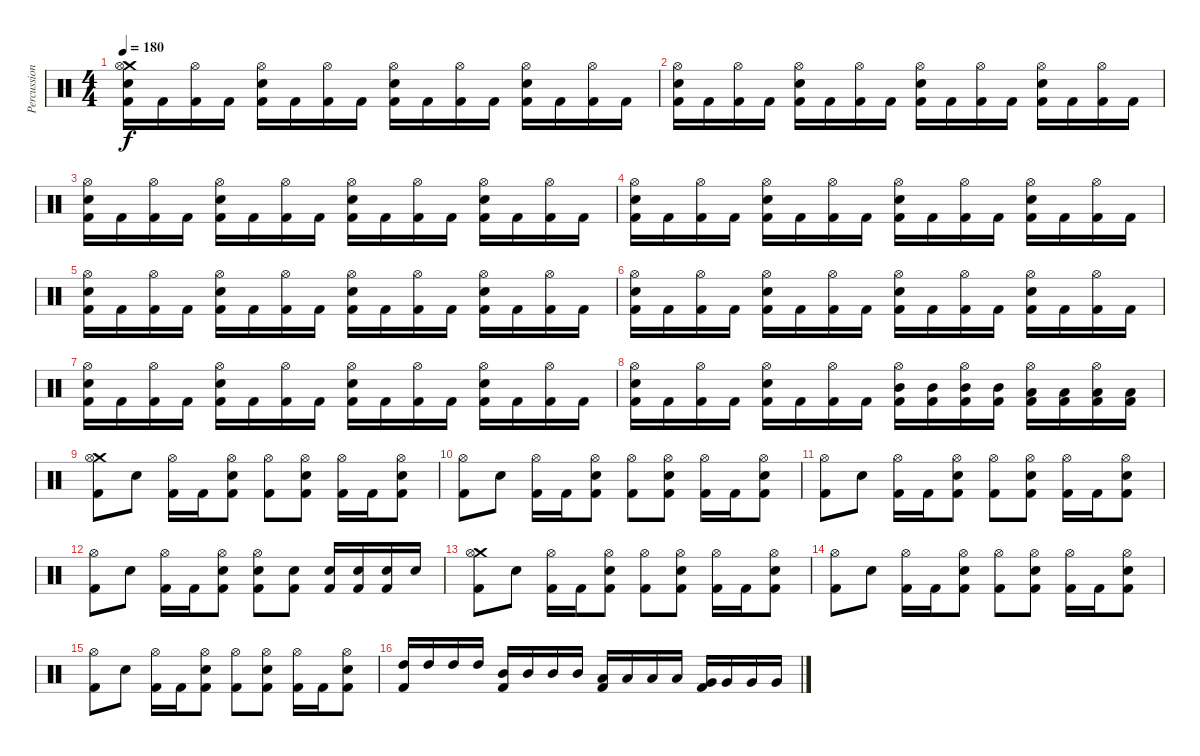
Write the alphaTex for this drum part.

\track ("Percussion" "Percussion") {instrument percussion}
\staff {score}
\articulation defaults
\ts (4 4)
\tempo 180
\clef neutral
\ks c
("Crash medium (hit)" "Hi-Hat (open)" "Electric Snare (hit)" "Kick (hit) 2").16{dy f} "Kick (hit) 2".16 ("Hi-Hat (open)" "Kick (hit) 2").16 "Kick (hit) 2".16 ("Hi-Hat (open)" "Electric Snare (hit)" "Kick (hit) 2").16 "Kick (hit) 2".16 ("Hi-Hat (open)" "Kick (hit) 2").16 "Kick (hit) 2".16 ("Hi-Hat (open)" "Electric Snare (hit)" "Kick (hit) 2").16 "Kick (hit) 2".16 ("Hi-Hat (open)" "Kick (hit) 2").16 "Kick (hit) 2".16 ("Hi-Hat (open)" "Electric Snare (hit)" "Kick (hit) 2").16 "Kick (hit) 2".16 ("Hi-Hat (open)" "Kick (hit) 2").16 "Kick (hit) 2".16 |
("Hi-Hat (open)" "Electric Snare (hit)" "Kick (hit) 2").16 "Kick (hit) 2".16 ("Hi-Hat (open)" "Kick (hit) 2").16 "Kick (hit) 2".16 ("Hi-Hat (open)" "Electric Snare (hit)" "Kick (hit) 2").16 "Kick (hit) 2".16 ("Hi-Hat (open)" "Kick (hit) 2").16 "Kick (hit) 2".16 ("Hi-Hat (open)" "Electric Snare (hit)" "Kick (hit) 2").16 "Kick (hit) 2".16 ("Hi-Hat (open)" "Kick (hit) 2").16 "Kick (hit) 2".16 ("Hi-Hat (open)" "Electric Snare (hit)" "Kick (hit) 2").16 "Kick (hit) 2".16 ("Hi-Hat (open)" "Kick (hit) 2").16 "Kick (hit) 2".16 |
("Hi-Hat (open)" "Electric Snare (hit)" "Kick (hit) 2").16 "Kick (hit) 2".16 ("Hi-Hat (open)" "Kick (hit) 2").16 "Kick (hit) 2".16 ("Hi-Hat (open)" "Electric Snare (hit)" "Kick (hit) 2").16 "Kick (hit) 2".16 ("Hi-Hat (open)" "Kick (hit) 2").16 "Kick (hit) 2".16 ("Hi-Hat (open)" "Electric Snare (hit)" "Kick (hit) 2").16 "Kick (hit) 2".16 ("Hi-Hat (open)" "Kick (hit) 2").16 "Kick (hit) 2".16 ("Hi-Hat (open)" "Electric Snare (hit)" "Kick (hit) 2").16 "Kick (hit) 2".16 ("Hi-Hat (open)" "Kick (hit) 2").16 "Kick (hit) 2".16 |
("Hi-Hat (open)" "Electric Snare (hit)" "Kick (hit) 2").16 "Kick (hit) 2".16 ("Hi-Hat (open)" "Kick (hit) 2").16 "Kick (hit) 2".16 ("Hi-Hat (open)" "Electric Snare (hit)" "Kick (hit) 2").16 "Kick (hit) 2".16 ("Hi-Hat (open)" "Kick (hit) 2").16 "Kick (hit) 2".16 ("Hi-Hat (open)" "Electric Snare (hit)" "Kick (hit) 2").16 "Kick (hit) 2".16 ("Hi-Hat (open)" "Kick (hit) 2").16 "Kick (hit) 2".16 ("Hi-Hat (open)" "Electric Snare (hit)" "Kick (hit) 2").16 "Kick (hit) 2".16 ("Hi-Hat (open)" "Kick (hit) 2").16 "Kick (hit) 2".16 |
("Hi-Hat (open)" "Electric Snare (hit)" "Kick (hit) 2").16 "Kick (hit) 2".16 ("Hi-Hat (open)" "Kick (hit) 2").16 "Kick (hit) 2".16 ("Hi-Hat (open)" "Electric Snare (hit)" "Kick (hit) 2").16 "Kick (hit) 2".16 ("Hi-Hat (open)" "Kick (hit) 2").16 "Kick (hit) 2".16 ("Hi-Hat (open)" "Electric Snare (hit)" "Kick (hit) 2").16 "Kick (hit) 2".16 ("Hi-Hat (open)" "Kick (hit) 2").16 "Kick (hit) 2".16 ("Hi-Hat (open)" "Electric Snare (hit)" "Kick (hit) 2").16 "Kick (hit) 2".16 ("Hi-Hat (open)" "Kick (hit) 2").16 "Kick (hit) 2".16 |
("Hi-Hat (open)" "Electric Snare (hit)" "Kick (hit) 2").16 "Kick (hit) 2".16 ("Hi-Hat (open)" "Kick (hit) 2").16 "Kick (hit) 2".16 ("Hi-Hat (open)" "Electric Snare (hit)" "Kick (hit) 2").16 "Kick (hit) 2".16 ("Hi-Hat (open)" "Kick (hit) 2").16 "Kick (hit) 2".16 ("Hi-Hat (open)" "Electric Snare (hit)" "Kick (hit) 2").16 "Kick (hit) 2".16 ("Hi-Hat (open)" "Kick (hit) 2").16 "Kick (hit) 2".16 ("Hi-Hat (open)" "Electric Snare (hit)" "Kick (hit) 2").16 "Kick (hit) 2".16 ("Hi-Hat (open)" "Kick (hit) 2").16 "Kick (hit) 2".16 |
("Hi-Hat (open)" "Electric Snare (hit)" "Kick (hit) 2").16 "Kick (hit) 2".16 ("Hi-Hat (open)" "Kick (hit) 2").16 "Kick (hit) 2".16 ("Hi-Hat (open)" "Electric Snare (hit)" "Kick (hit) 2").16 "Kick (hit) 2".16 ("Hi-Hat (open)" "Kick (hit) 2").16 "Kick (hit) 2".16 ("Hi-Hat (open)" "Electric Snare (hit)" "Kick (hit) 2").16 "Kick (hit) 2".16 ("Hi-Hat (open)" "Kick (hit) 2").16 "Kick (hit) 2".16 ("Hi-Hat (open)" "Electric Snare (hit)" "Kick (hit) 2").16 "Kick (hit) 2".16 ("Hi-Hat (open)" "Kick (hit) 2").16 "Kick (hit) 2".16 |
("Hi-Hat (open)" "Electric Snare (hit)" "Kick (hit) 2").16 "Kick (hit) 2".16 ("Hi-Hat (open)" "Kick (hit) 2").16 "Kick (hit) 2".16 ("Hi-Hat (open)" "Electric Snare (hit)" "Kick (hit) 2").16 "Kick (hit) 2".16 ("Hi-Hat (open)" "Kick (hit) 2").16 "Kick (hit) 2".16 ("Hi-Hat (open)" "Mid Tom (hit)" "Kick (hit) 2").16 ("Mid Tom (hit)" "Kick (hit) 2").16 ("Hi-Hat (open)" "Mid Tom (hit)" "Kick (hit) 2").16 ("Mid Tom (hit)" "Kick (hit) 2").16 ("Hi-Hat (open)" "Low Tom (hit)" "Kick (hit) 2").16 ("Low Tom (hit)" "Kick (hit) 2").16 ("Hi-Hat (open)" "Low Tom (hit)" "Kick (hit) 2").16 ("Low Tom (hit)" "Kick (hit) 2").16 |
("Crash medium (hit)" "Hi-Hat (open)" "Kick (hit) 2").8 "Electric Snare (hit)".8 ("Hi-Hat (open)" "Kick (hit) 2").16 "Kick (hit) 2".16 ("Hi-Hat (open)" "Electric Snare (hit)" "Kick (hit) 2").8 ("Hi-Hat (open)" "Kick (hit) 2").8 ("Hi-Hat (open)" "Electric Snare (hit)" "Kick (hit) 2").8 ("Hi-Hat (open)" "Kick (hit) 2").16 "Kick (hit) 2".16 ("Hi-Hat (open)" "Electric Snare (hit)" "Kick (hit) 2").8 |
("Hi-Hat (open)" "Kick (hit) 2").8 "Electric Snare (hit)".8 ("Hi-Hat (open)" "Kick (hit) 2").16 "Kick (hit) 2".16 ("Hi-Hat (open)" "Electric Snare (hit)" "Kick (hit) 2").8 ("Hi-Hat (open)" "Kick (hit) 2").8 ("Hi-Hat (open)" "Electric Snare (hit)" "Kick (hit) 2").8 ("Hi-Hat (open)" "Kick (hit) 2").16 "Kick (hit) 2".16 ("Hi-Hat (open)" "Electric Snare (hit)" "Kick (hit) 2").8 |
("Hi-Hat (open)" "Kick (hit) 2").8 "Electric Snare (hit)".8 ("Hi-Hat (open)" "Kick (hit) 2").16 "Kick (hit) 2".16 ("Hi-Hat (open)" "Electric Snare (hit)" "Kick (hit) 2").8 ("Hi-Hat (open)" "Kick (hit) 2").8 ("Hi-Hat (open)" "Electric Snare (hit)" "Kick (hit) 2").8 ("Hi-Hat (open)" "Kick (hit) 2").16 "Kick (hit) 2".16 ("Hi-Hat (open)" "Electric Snare (hit)" "Kick (hit) 2").8 |
("Hi-Hat (open)" "Kick (hit) 2").8 "Electric Snare (hit)".8 ("Hi-Hat (open)" "Kick (hit) 2").16 "Kick (hit) 2".16 ("Hi-Hat (open)" "Electric Snare (hit)" "Kick (hit) 2").8 ("Hi-Hat (open)" "Electric Snare (hit)" "Kick (hit) 2").8 ("Electric Snare (hit)" "Kick (hit) 2").8 ("Electric Snare (hit)" "Kick (hit) 2").16 ("Electric Snare (hit)" "Kick (hit) 2").16 ("Electric Snare (hit)" "Kick (hit) 2").16 "Electric Snare (hit)".16 |
("Crash medium (hit)" "Hi-Hat (open)" "Kick (hit) 2").8 "Electric Snare (hit)".8 ("Hi-Hat (open)" "Kick (hit) 2").16 "Kick (hit) 2".16 ("Hi-Hat (open)" "Electric Snare (hit)" "Kick (hit) 2").8 ("Hi-Hat (open)" "Kick (hit) 2").8 ("Hi-Hat (open)" "Electric Snare (hit)" "Kick (hit) 2").8 ("Hi-Hat (open)" "Kick (hit) 2").16 "Kick (hit) 2".16 ("Hi-Hat (open)" "Electric Snare (hit)" "Kick (hit) 2").8 |
("Hi-Hat (open)" "Kick (hit) 2").8 "Electric Snare (hit)".8 ("Hi-Hat (open)" "Kick (hit) 2").16 "Kick (hit) 2".16 ("Hi-Hat (open)" "Electric Snare (hit)" "Kick (hit) 2").8 ("Hi-Hat (open)" "Kick (hit) 2").8 ("Hi-Hat (open)" "Electric Snare (hit)" "Kick (hit) 2").8 ("Hi-Hat (open)" "Kick (hit) 2").16 "Kick (hit) 2".16 ("Hi-Hat (open)" "Electric Snare (hit)" "Kick (hit) 2").8 |
("Hi-Hat (open)" "Kick (hit) 2").8 "Electric Snare (hit)".8 ("Hi-Hat (open)" "Kick (hit) 2").16 "Kick (hit) 2".16 ("Hi-Hat (open)" "Electric Snare (hit)" "Kick (hit) 2").8 ("Hi-Hat (open)" "Kick (hit) 2").8 ("Hi-Hat (open)" "Electric Snare (hit)" "Kick (hit) 2").8 ("Hi-Hat (open)" "Kick (hit) 2").16 "Kick (hit) 2".16 ("Hi-Hat (open)" "Electric Snare (hit)" "Kick (hit) 2").8 |
("High Tom (hit)" "Kick (hit) 2").16 "High Tom (hit)".16 "High Tom (hit)".16 "High Tom (hit)".16 ("Mid Tom (hit)" "Kick (hit) 2").16 "Mid Tom (hit)".16 "Mid Tom (hit)".16 "Mid Tom (hit)".16 ("Low Tom (hit)" "Kick (hit) 2").16 "Low Tom (hit)".16 "Low Tom (hit)".16 "Low Tom (hit)".16 ("Very Low Tom (hit)" "Kick (hit) 2").16 "Very Low Tom (hit)".16 "Very Low Tom (hit)".16 "Very Low Tom (hit)".16
